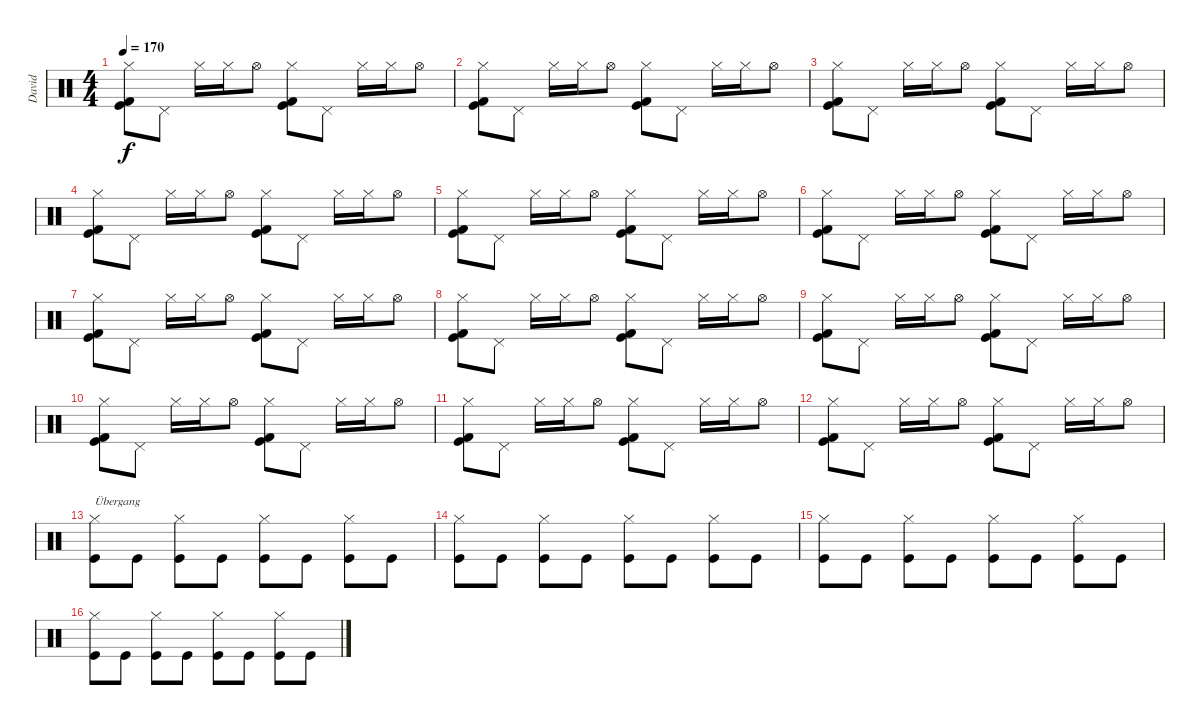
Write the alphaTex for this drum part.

\track ("David" "David") {instrument percussion}
\staff {score}
\articulation defaults
\ts (4 4)
\tempo 170
\clef neutral
\ks c
("Hi-Hat (closed)" "Kick (hit) 2" "Kick (hit)").8{dy f} "Pedal Hi-Hat (hit)".8 "Hi-Hat (closed)".16 "Hi-Hat (closed)".16 "Hi-Hat (open)".8 ("Hi-Hat (closed)" "Kick (hit) 2" "Kick (hit)").8 "Pedal Hi-Hat (hit)".8 "Hi-Hat (closed)".16 "Hi-Hat (closed)".16 "Hi-Hat (open)".8 |
("Hi-Hat (closed)" "Kick (hit) 2" "Kick (hit)").8 "Pedal Hi-Hat (hit)".8 "Hi-Hat (closed)".16 "Hi-Hat (closed)".16 "Hi-Hat (open)".8 ("Hi-Hat (closed)" "Kick (hit) 2" "Kick (hit)").8 "Pedal Hi-Hat (hit)".8 "Hi-Hat (closed)".16 "Hi-Hat (closed)".16 "Hi-Hat (open)".8 |
("Hi-Hat (closed)" "Kick (hit) 2" "Kick (hit)").8 "Pedal Hi-Hat (hit)".8 "Hi-Hat (closed)".16 "Hi-Hat (closed)".16 "Hi-Hat (open)".8 ("Hi-Hat (closed)" "Kick (hit) 2" "Kick (hit)").8 "Pedal Hi-Hat (hit)".8 "Hi-Hat (closed)".16 "Hi-Hat (closed)".16 "Hi-Hat (open)".8 |
("Hi-Hat (closed)" "Kick (hit) 2" "Kick (hit)").8 "Pedal Hi-Hat (hit)".8 "Hi-Hat (closed)".16 "Hi-Hat (closed)".16 "Hi-Hat (open)".8 ("Hi-Hat (closed)" "Kick (hit) 2" "Kick (hit)").8 "Pedal Hi-Hat (hit)".8 "Hi-Hat (closed)".16 "Hi-Hat (closed)".16 "Hi-Hat (open)".8 |
("Hi-Hat (closed)" "Kick (hit) 2" "Kick (hit)").8 "Pedal Hi-Hat (hit)".8 "Hi-Hat (closed)".16 "Hi-Hat (closed)".16 "Hi-Hat (open)".8 ("Hi-Hat (closed)" "Kick (hit) 2" "Kick (hit)").8 "Pedal Hi-Hat (hit)".8 "Hi-Hat (closed)".16 "Hi-Hat (closed)".16 "Hi-Hat (open)".8 |
("Hi-Hat (closed)" "Kick (hit) 2" "Kick (hit)").8 "Pedal Hi-Hat (hit)".8 "Hi-Hat (closed)".16 "Hi-Hat (closed)".16 "Hi-Hat (open)".8 ("Hi-Hat (closed)" "Kick (hit) 2" "Kick (hit)").8 "Pedal Hi-Hat (hit)".8 "Hi-Hat (closed)".16 "Hi-Hat (closed)".16 "Hi-Hat (open)".8 |
("Hi-Hat (closed)" "Kick (hit) 2" "Kick (hit)").8 "Pedal Hi-Hat (hit)".8 "Hi-Hat (closed)".16 "Hi-Hat (closed)".16 "Hi-Hat (open)".8 ("Hi-Hat (closed)" "Kick (hit) 2" "Kick (hit)").8 "Pedal Hi-Hat (hit)".8 "Hi-Hat (closed)".16 "Hi-Hat (closed)".16 "Hi-Hat (open)".8 |
("Hi-Hat (closed)" "Kick (hit) 2" "Kick (hit)").8 "Pedal Hi-Hat (hit)".8 "Hi-Hat (closed)".16 "Hi-Hat (closed)".16 "Hi-Hat (open)".8 ("Hi-Hat (closed)" "Kick (hit) 2" "Kick (hit)").8 "Pedal Hi-Hat (hit)".8 "Hi-Hat (closed)".16 "Hi-Hat (closed)".16 "Hi-Hat (open)".8 |
("Hi-Hat (closed)" "Kick (hit) 2" "Kick (hit)").8 "Pedal Hi-Hat (hit)".8 "Hi-Hat (closed)".16 "Hi-Hat (closed)".16 "Hi-Hat (open)".8 ("Hi-Hat (closed)" "Kick (hit) 2" "Kick (hit)").8 "Pedal Hi-Hat (hit)".8 "Hi-Hat (closed)".16 "Hi-Hat (closed)".16 "Hi-Hat (open)".8 |
("Hi-Hat (closed)" "Kick (hit) 2" "Kick (hit)").8 "Pedal Hi-Hat (hit)".8 "Hi-Hat (closed)".16 "Hi-Hat (closed)".16 "Hi-Hat (open)".8 ("Hi-Hat (closed)" "Kick (hit) 2" "Kick (hit)").8 "Pedal Hi-Hat (hit)".8 "Hi-Hat (closed)".16 "Hi-Hat (closed)".16 "Hi-Hat (open)".8 |
("Hi-Hat (closed)" "Kick (hit) 2" "Kick (hit)").8 "Pedal Hi-Hat (hit)".8 "Hi-Hat (closed)".16 "Hi-Hat (closed)".16 "Hi-Hat (open)".8 ("Hi-Hat (closed)" "Kick (hit) 2" "Kick (hit)").8 "Pedal Hi-Hat (hit)".8 "Hi-Hat (closed)".16 "Hi-Hat (closed)".16 "Hi-Hat (open)".8 |
("Hi-Hat (closed)" "Kick (hit) 2" "Kick (hit)").8 "Pedal Hi-Hat (hit)".8 "Hi-Hat (closed)".16 "Hi-Hat (closed)".16 "Hi-Hat (open)".8 ("Hi-Hat (closed)" "Kick (hit) 2" "Kick (hit)").8 "Pedal Hi-Hat (hit)".8 "Hi-Hat (closed)".16 "Hi-Hat (closed)".16 "Hi-Hat (open)".8 |
("Hi-Hat (closed)" "Kick (hit)").8{txt "Übergang"} "Kick (hit)".8 ("Hi-Hat (closed)" "Kick (hit)").8 "Kick (hit)".8 ("Hi-Hat (closed)" "Kick (hit)").8 "Kick (hit)".8 ("Hi-Hat (closed)" "Kick (hit)").8 "Kick (hit)".8 |
("Hi-Hat (closed)" "Kick (hit)").8 "Kick (hit)".8 ("Hi-Hat (closed)" "Kick (hit)").8 "Kick (hit)".8 ("Hi-Hat (closed)" "Kick (hit)").8 "Kick (hit)".8 ("Hi-Hat (closed)" "Kick (hit)").8 "Kick (hit)".8 |
("Hi-Hat (closed)" "Kick (hit)").8 "Kick (hit)".8 ("Hi-Hat (closed)" "Kick (hit)").8 "Kick (hit)".8 ("Hi-Hat (closed)" "Kick (hit)").8 "Kick (hit)".8 ("Hi-Hat (closed)" "Kick (hit)").8 "Kick (hit)".8 |
("Hi-Hat (closed)" "Kick (hit)").8 "Kick (hit)".8 ("Hi-Hat (closed)" "Kick (hit)").8 "Kick (hit)".8 ("Hi-Hat (closed)" "Kick (hit)").8 "Kick (hit)".8 ("Hi-Hat (closed)" "Kick (hit)").8 "Kick (hit)".8
